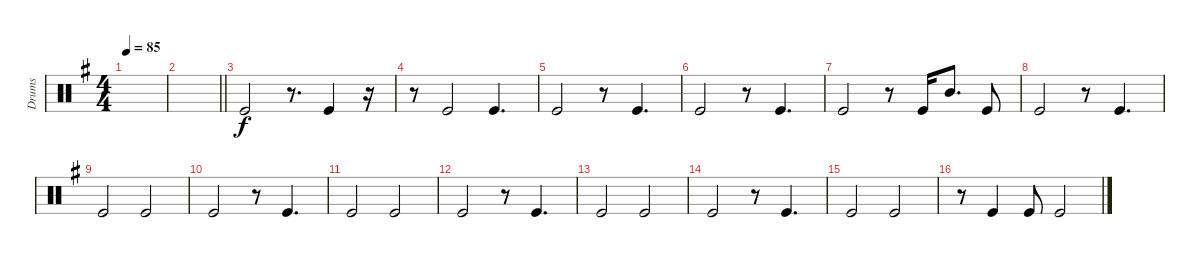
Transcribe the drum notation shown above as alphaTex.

\track ("Drums" "Drums") {instrument percussion}
\staff {score}
\articulation defaults
\ts (4 4)
\tempo 85
\clef neutral
\ks eminor
|
\barLineRight lightlight
|
"Kick (hit)".2 r.8{d} "Kick (hit)".4 r.16 |
r.8 "Kick (hit)".2 "Kick (hit)".4{d} |
"Kick (hit)".2 r.8 "Kick (hit)".4{d} |
"Kick (hit)".2 r.8 "Kick (hit)".4{d} |
"Kick (hit)".2 r.8 "Kick (hit)".16 "Mid Tom (hit)".8{d} "Kick (hit)".8 |
"Kick (hit)".2 r.8 "Kick (hit)".4{d} |
"Kick (hit)".2 "Kick (hit)".2 |
"Kick (hit)".2 r.8 "Kick (hit)".4{d} |
"Kick (hit)".2 "Kick (hit)".2 |
"Kick (hit)".2 r.8 "Kick (hit)".4{d} |
"Kick (hit)".2 "Kick (hit)".2 |
"Kick (hit)".2 r.8 "Kick (hit)".4{d} |
"Kick (hit)".2 "Kick (hit)".2 |
r.8 "Kick (hit)".4 "Kick (hit)".8 "Kick (hit)".2
